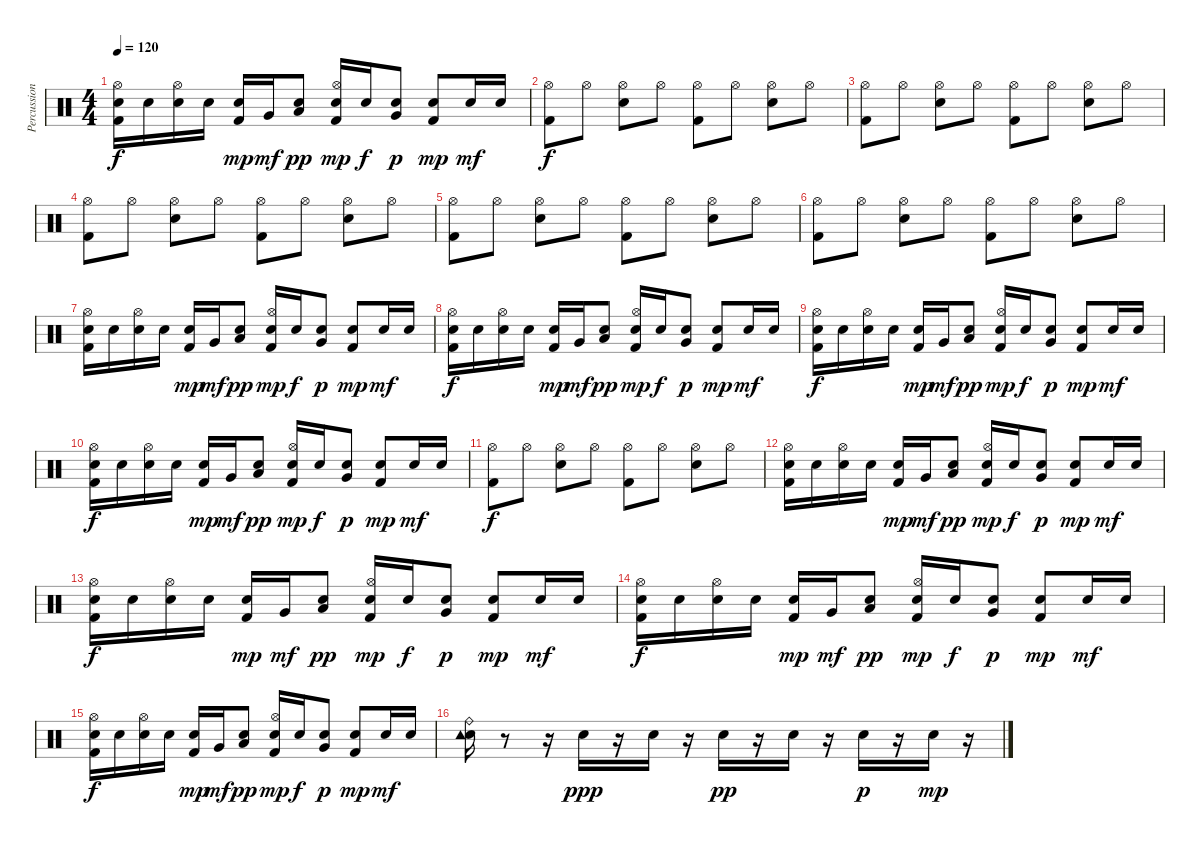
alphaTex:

\track ("Percussion" "Percussion") {instrument percussion}
\staff {score}
\articulation defaults
\ts (4 4)
\tempo 120
\clef neutral
\ks c
("Electric Snare (hit)" "Hi-Hat (open)" "Kick (hit) 2").16{dy f} "Electric Snare (hit)".16 ("Electric Snare (hit)" "Hi-Hat (open)").16 "Electric Snare (hit)".16 ("Electric Snare (hit)" "Kick (hit) 2").16{dy mp} "Very Low Tom (hit)".16{dy mf} ("Low Tom (hit)" "Electric Snare (hit)").8{dy pp} ("Electric Snare (hit)" "Hi-Hat (open)" "Kick (hit) 2").16{dy mp} "Electric Snare (hit)".16{dy f} ("Very Low Tom (hit)" "Electric Snare (hit)").8{dy p} ("Electric Snare (hit)" "Kick (hit) 2").8{dy mp} "Electric Snare (hit)".16{dy mf} "Electric Snare (hit)".16 |
("Hi-Hat (open)" "Kick (hit) 2").8{dy f} "Hi-Hat (open)".8 ("Hi-Hat (open)" "Electric Snare (hit)").8 "Hi-Hat (open)".8 ("Hi-Hat (open)" "Kick (hit) 2").8 "Hi-Hat (open)".8 ("Hi-Hat (open)" "Electric Snare (hit)").8 "Hi-Hat (open)".8 |
("Hi-Hat (open)" "Kick (hit) 2").8 "Hi-Hat (open)".8 ("Hi-Hat (open)" "Electric Snare (hit)").8 "Hi-Hat (open)".8 ("Hi-Hat (open)" "Kick (hit) 2").8 "Hi-Hat (open)".8 ("Hi-Hat (open)" "Electric Snare (hit)").8 "Hi-Hat (open)".8 |
("Hi-Hat (open)" "Kick (hit) 2").8 "Hi-Hat (open)".8 ("Hi-Hat (open)" "Electric Snare (hit)").8 "Hi-Hat (open)".8 ("Hi-Hat (open)" "Kick (hit) 2").8 "Hi-Hat (open)".8 ("Hi-Hat (open)" "Electric Snare (hit)").8 "Hi-Hat (open)".8 |
("Hi-Hat (open)" "Kick (hit) 2").8 "Hi-Hat (open)".8 ("Hi-Hat (open)" "Electric Snare (hit)").8 "Hi-Hat (open)".8 ("Hi-Hat (open)" "Kick (hit) 2").8 "Hi-Hat (open)".8 ("Hi-Hat (open)" "Electric Snare (hit)").8 "Hi-Hat (open)".8 |
("Hi-Hat (open)" "Kick (hit) 2").8 "Hi-Hat (open)".8 ("Hi-Hat (open)" "Electric Snare (hit)").8 "Hi-Hat (open)".8 ("Hi-Hat (open)" "Kick (hit) 2").8 "Hi-Hat (open)".8 ("Hi-Hat (open)" "Electric Snare (hit)").8 "Hi-Hat (open)".8 |
("Electric Snare (hit)" "Hi-Hat (open)" "Kick (hit) 2").16 "Electric Snare (hit)".16 ("Electric Snare (hit)" "Hi-Hat (open)").16 "Electric Snare (hit)".16 ("Electric Snare (hit)" "Kick (hit) 2").16{dy mp} "Very Low Tom (hit)".16{dy mf} ("Low Tom (hit)" "Electric Snare (hit)").8{dy pp} ("Electric Snare (hit)" "Hi-Hat (open)" "Kick (hit) 2").16{dy mp} "Electric Snare (hit)".16{dy f} ("Very Low Tom (hit)" "Electric Snare (hit)").8{dy p} ("Electric Snare (hit)" "Kick (hit) 2").8{dy mp} "Electric Snare (hit)".16{dy mf} "Electric Snare (hit)".16 |
("Electric Snare (hit)" "Hi-Hat (open)" "Kick (hit) 2").16{dy f} "Electric Snare (hit)".16 ("Electric Snare (hit)" "Hi-Hat (open)").16 "Electric Snare (hit)".16 ("Electric Snare (hit)" "Kick (hit) 2").16{dy mp} "Very Low Tom (hit)".16{dy mf} ("Low Tom (hit)" "Electric Snare (hit)").8{dy pp} ("Electric Snare (hit)" "Hi-Hat (open)" "Kick (hit) 2").16{dy mp} "Electric Snare (hit)".16{dy f} ("Very Low Tom (hit)" "Electric Snare (hit)").8{dy p} ("Electric Snare (hit)" "Kick (hit) 2").8{dy mp} "Electric Snare (hit)".16{dy mf} "Electric Snare (hit)".16 |
("Electric Snare (hit)" "Hi-Hat (open)" "Kick (hit) 2").16{dy f} "Electric Snare (hit)".16 ("Electric Snare (hit)" "Hi-Hat (open)").16 "Electric Snare (hit)".16 ("Electric Snare (hit)" "Kick (hit) 2").16{dy mp} "Very Low Tom (hit)".16{dy mf} ("Low Tom (hit)" "Electric Snare (hit)").8{dy pp} ("Electric Snare (hit)" "Hi-Hat (open)" "Kick (hit) 2").16{dy mp} "Electric Snare (hit)".16{dy f} ("Very Low Tom (hit)" "Electric Snare (hit)").8{dy p} ("Electric Snare (hit)" "Kick (hit) 2").8{dy mp} "Electric Snare (hit)".16{dy mf} "Electric Snare (hit)".16 |
("Electric Snare (hit)" "Hi-Hat (open)" "Kick (hit) 2").16{dy f} "Electric Snare (hit)".16 ("Electric Snare (hit)" "Hi-Hat (open)").16 "Electric Snare (hit)".16 ("Electric Snare (hit)" "Kick (hit) 2").16{dy mp} "Very Low Tom (hit)".16{dy mf} ("Low Tom (hit)" "Electric Snare (hit)").8{dy pp} ("Electric Snare (hit)" "Hi-Hat (open)" "Kick (hit) 2").16{dy mp} "Electric Snare (hit)".16{dy f} ("Very Low Tom (hit)" "Electric Snare (hit)").8{dy p} ("Electric Snare (hit)" "Kick (hit) 2").8{dy mp} "Electric Snare (hit)".16{dy mf} "Electric Snare (hit)".16 |
("Hi-Hat (open)" "Kick (hit) 2").8{dy f} "Hi-Hat (open)".8 ("Hi-Hat (open)" "Electric Snare (hit)").8 "Hi-Hat (open)".8 ("Hi-Hat (open)" "Kick (hit) 2").8 "Hi-Hat (open)".8 ("Hi-Hat (open)" "Electric Snare (hit)").8 "Hi-Hat (open)".8 |
("Electric Snare (hit)" "Hi-Hat (open)" "Kick (hit) 2").16 "Electric Snare (hit)".16 ("Electric Snare (hit)" "Hi-Hat (open)").16 "Electric Snare (hit)".16 ("Electric Snare (hit)" "Kick (hit) 2").16{dy mp} "Very Low Tom (hit)".16{dy mf} ("Low Tom (hit)" "Electric Snare (hit)").8{dy pp} ("Electric Snare (hit)" "Hi-Hat (open)" "Kick (hit) 2").16{dy mp} "Electric Snare (hit)".16{dy f} ("Very Low Tom (hit)" "Electric Snare (hit)").8{dy p} ("Electric Snare (hit)" "Kick (hit) 2").8{dy mp} "Electric Snare (hit)".16{dy mf} "Electric Snare (hit)".16 |
("Electric Snare (hit)" "Hi-Hat (open)" "Kick (hit) 2").16{dy f} "Electric Snare (hit)".16 ("Electric Snare (hit)" "Hi-Hat (open)").16 "Electric Snare (hit)".16 ("Electric Snare (hit)" "Kick (hit) 2").16{dy mp} "Very Low Tom (hit)".16{dy mf} ("Low Tom (hit)" "Electric Snare (hit)").8{dy pp} ("Electric Snare (hit)" "Hi-Hat (open)" "Kick (hit) 2").16{dy mp} "Electric Snare (hit)".16{dy f} ("Very Low Tom (hit)" "Electric Snare (hit)").8{dy p} ("Electric Snare (hit)" "Kick (hit) 2").8{dy mp} "Electric Snare (hit)".16{dy mf} "Electric Snare (hit)".16 |
("Electric Snare (hit)" "Hi-Hat (open)" "Kick (hit) 2").16{dy f} "Electric Snare (hit)".16 ("Electric Snare (hit)" "Hi-Hat (open)").16 "Electric Snare (hit)".16 ("Electric Snare (hit)" "Kick (hit) 2").16{dy mp} "Very Low Tom (hit)".16{dy mf} ("Low Tom (hit)" "Electric Snare (hit)").8{dy pp} ("Electric Snare (hit)" "Hi-Hat (open)" "Kick (hit) 2").16{dy mp} "Electric Snare (hit)".16{dy f} ("Very Low Tom (hit)" "Electric Snare (hit)").8{dy p} ("Electric Snare (hit)" "Kick (hit) 2").8{dy mp} "Electric Snare (hit)".16{dy mf} "Electric Snare (hit)".16 |
("Electric Snare (hit)" "Hi-Hat (open)" "Kick (hit) 2").16{dy f} "Electric Snare (hit)".16 ("Electric Snare (hit)" "Hi-Hat (open)").16 "Electric Snare (hit)".16 ("Electric Snare (hit)" "Kick (hit) 2").16{dy mp} "Very Low Tom (hit)".16{dy mf} ("Low Tom (hit)" "Electric Snare (hit)").8{dy pp} ("Electric Snare (hit)" "Hi-Hat (open)" "Kick (hit) 2").16{dy mp} "Electric Snare (hit)".16{dy f} ("Very Low Tom (hit)" "Electric Snare (hit)").8{dy p} ("Electric Snare (hit)" "Kick (hit) 2").8{dy mp} "Electric Snare (hit)".16{dy mf} "Electric Snare (hit)".16 |
("Electric Snare (hit)" "Tambourine (hit)" "Ride (bell)").16 r.8 r.16 "Electric Snare (hit)".16{dy ppp} r.16 "Electric Snare (hit)".16 r.16 "Electric Snare (hit)".16{dy pp} r.16 "Electric Snare (hit)".16 r.16 "Electric Snare (hit)".16{dy p} r.16 "Electric Snare (hit)".16{dy mp} r.16
